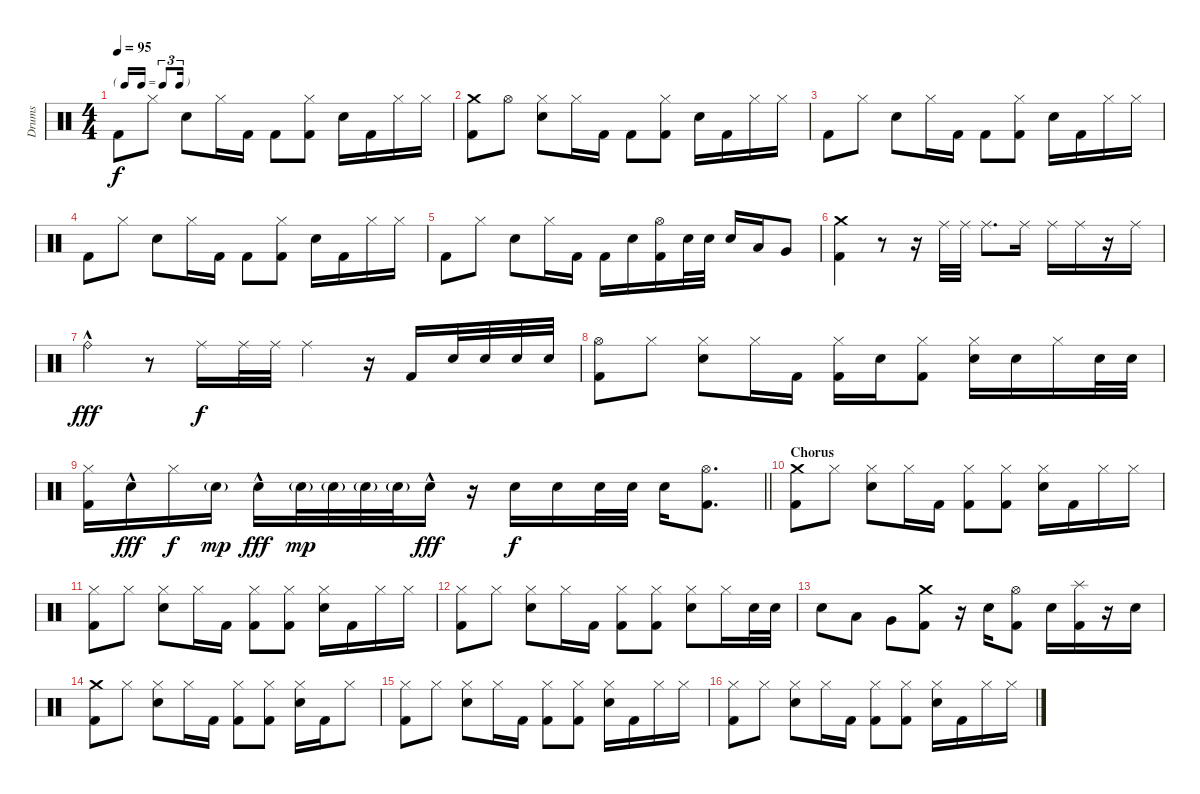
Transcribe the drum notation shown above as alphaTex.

\track ("Drums" "Drums") {instrument percussion}
\staff {score}
\articulation defaults
\ts (4 4)
\tf triplet16th
\tempo 95
\clef neutral
\ks c "Kick (hit) 2".8{dy f} "Hi-Hat (closed)".8 "Snare (hit) 2".8 "Hi-Hat (closed)".16 "Kick (hit) 2".16 "Kick (hit) 2".8
("Hi-Hat (closed)" "Kick (hit) 2").8 "Snare (hit) 2".16 "Kick (hit) 2".16 "Hi-Hat (closed)".16 "Hi-Hat (closed)".16 |
("Crash medium (hit)" "Kick (hit) 2").8 "Hi-Hat (open)".8 ("Hi-Hat (closed)" "Snare (hit) 2").8 "Hi-Hat (closed)".16 "Kick (hit) 2".16 "Kick (hit) 2".8 ("Hi-Hat (closed)" "Kick (hit) 2").8 "Snare (hit) 2".16 "Kick (hit) 2".16 "Hi-Hat (closed)".16 "Hi-Hat (closed)".16 |
"Kick (hit) 2".8 "Hi-Hat (closed)".8 "Snare (hit) 2".8 "Hi-Hat (closed)".16 "Kick (hit) 2".16 "Kick (hit) 2".8 ("Hi-Hat (closed)" "Kick (hit) 2").8 "Snare (hit) 2".16 "Kick (hit) 2".16 "Hi-Hat (closed)".16 "Hi-Hat (closed)".16 |
"Kick (hit) 2".8 "Hi-Hat (closed)".8 "Snare (hit) 2".8 "Hi-Hat (closed)".16 "Kick (hit) 2".16 "Kick (hit) 2".8 ("Hi-Hat (closed)" "Kick (hit) 2").8 "Snare (hit) 2".16 "Kick (hit) 2".16 "Hi-Hat (closed)".16 "Hi-Hat (closed)".16 |
"Kick (hit) 2".8 "Hi-Hat (closed)".8 "Snare (hit) 2".8 "Hi-Hat (closed)".16 "Kick (hit) 2".16 "Kick (hit) 2".16 "Snare (hit) 2".16 ("Hi-Hat (open)" "Kick (hit) 2").16 "Snare (hit) 2".32 "Snare (hit) 2".32 "Snare (hit) 2".16 "Low Tom (hit)".16 "Very Low Tom (hit)".8 |
("Crash medium (hit)" "Kick (hit) 2").4 r.8 r.16 "Ride (middle)".32 "Ride (middle)".32 "Ride (middle)".8{d} "Ride (middle)".16 "Ride (middle)".16 "Ride (middle)".16 r.16 "Ride (middle)".16 |
"Ride (bell)"{hac}.4{dy fff} r.8 "Ride (middle)".16{dy f} "Ride (middle)".32 "Ride (middle)".32 "Ride (middle)".4 r.16 "Kick (hit) 2".16 "Snare (hit) 2".32 "Snare (hit) 2".32 "Snare (hit) 2".32 "Snare (hit) 2".32 |
("Hi-Hat (open)" "Kick (hit) 2").8 "Hi-Hat (closed)".8 ("Hi-Hat (closed)" "Snare (hit) 2").8 "Hi-Hat (closed)".16 "Kick (hit) 2".16 ("Hi-Hat (closed)" "Kick (hit) 2").16 "Snare (hit) 2".16 ("Hi-Hat (closed)" "Kick (hit) 2").8 ("Hi-Hat (closed)" "Snare (hit) 2").16 "Snare (hit) 2".16 "Hi-Hat (closed)".16 "Snare (hit) 2".32 "Snare (hit) 2".32 |
\barLineRight lightlight
("Hi-Hat (closed)" "Kick (hit) 2").16 "Snare (hit) 2"{hac}.16{dy fff} "Hi-Hat (closed)".16{dy f} "Snare (hit) 2"{g}.16{dy mp} "Snare (hit) 2"{hac}.16{dy fff} "Snare (hit) 2"{g}.32{dy mp} "Snare (hit) 2"{g}.32 "Snare (hit) 2"{g}.32 "Snare (hit) 2"{g}.32 "Snare (hit) 2"{hac}.16{dy fff} r.16 "Snare (hit) 2".16{dy f} "Snare (hit) 2".16 "Snare (hit) 2".32 "Snare (hit) 2".32 "Snare (hit) 2".16 ("Hi-Hat (open)" "Kick (hit) 2").8{d} |
\section ("" "Chorus")
("Crash medium (hit)" "Kick (hit) 2").8 "Hi-Hat (closed)".8 ("Hi-Hat (closed)" "Snare (hit) 2").8 "Hi-Hat (closed)".16 "Kick (hit) 2".16 ("Hi-Hat (closed)" "Kick (hit) 2").8 ("Hi-Hat (closed)" "Kick (hit) 2").8 ("Hi-Hat (closed)" "Snare (hit) 2").16 "Kick (hit) 2".16 "Hi-Hat (closed)".16 "Hi-Hat (closed)".16 |
("Hi-Hat (closed)" "Kick (hit) 2").8 "Hi-Hat (closed)".8 ("Hi-Hat (closed)" "Snare (hit) 2").8 "Hi-Hat (closed)".16 "Kick (hit) 2".16 ("Hi-Hat (closed)" "Kick (hit) 2").8 ("Hi-Hat (closed)" "Kick (hit) 2").8 ("Hi-Hat (closed)" "Snare (hit) 2").16 "Kick (hit) 2".16 "Hi-Hat (closed)".16 "Hi-Hat (closed)".16 |
("Hi-Hat (closed)" "Kick (hit) 2").8 "Hi-Hat (closed)".8 ("Hi-Hat (closed)" "Snare (hit) 2").8 "Hi-Hat (closed)".16 "Kick (hit) 2".16 ("Hi-Hat (closed)" "Kick (hit) 2").8 ("Hi-Hat (closed)" "Kick (hit) 2").8 ("Hi-Hat (closed)" "Snare (hit) 2").8 "Hi-Hat (closed)".16 "Snare (hit) 2".32 "Snare (hit) 2".32 |
"Snare (hit) 2".8 "Low Tom (hit)".8 "Very Low Tom (hit)".8 ("Crash medium (hit)" "Kick (hit) 2").8 r.16 "Snare (hit) 2".16 ("Hi-Hat (open)" "Kick (hit) 2").8 "Snare (hit) 2".16 ("Splash (hit)" "Kick (hit) 2").16 r.16 "Snare (hit) 2".16 |
("Crash medium (hit)" "Kick (hit) 2").8 "Hi-Hat (closed)".8 ("Hi-Hat (closed)" "Snare (hit) 2").8 "Hi-Hat (closed)".16 "Kick (hit) 2".16 ("Hi-Hat (closed)" "Kick (hit) 2").8 ("Hi-Hat (closed)" "Kick (hit) 2").8 ("Hi-Hat (closed)" "Snare (hit) 2").16 "Kick (hit) 2".16 "Hi-Hat (closed)".8 |
("Hi-Hat (closed)" "Kick (hit) 2").8 "Hi-Hat (closed)".8 ("Hi-Hat (closed)" "Snare (hit) 2").8 "Hi-Hat (closed)".16 "Kick (hit) 2".16 ("Hi-Hat (closed)" "Kick (hit) 2").8 ("Hi-Hat (closed)" "Kick (hit) 2").8 ("Hi-Hat (closed)" "Snare (hit) 2").16 "Kick (hit) 2".16 "Hi-Hat (closed)".16 "Hi-Hat (closed)".16 |
("Hi-Hat (closed)" "Kick (hit) 2").8 "Hi-Hat (closed)".8 ("Hi-Hat (closed)" "Snare (hit) 2").8 "Hi-Hat (closed)".16 "Kick (hit) 2".16 ("Hi-Hat (closed)" "Kick (hit) 2").8 ("Hi-Hat (closed)" "Kick (hit) 2").8 ("Hi-Hat (closed)" "Snare (hit) 2").16 "Kick (hit) 2".16 "Hi-Hat (closed)".16 "Hi-Hat (closed)".16
